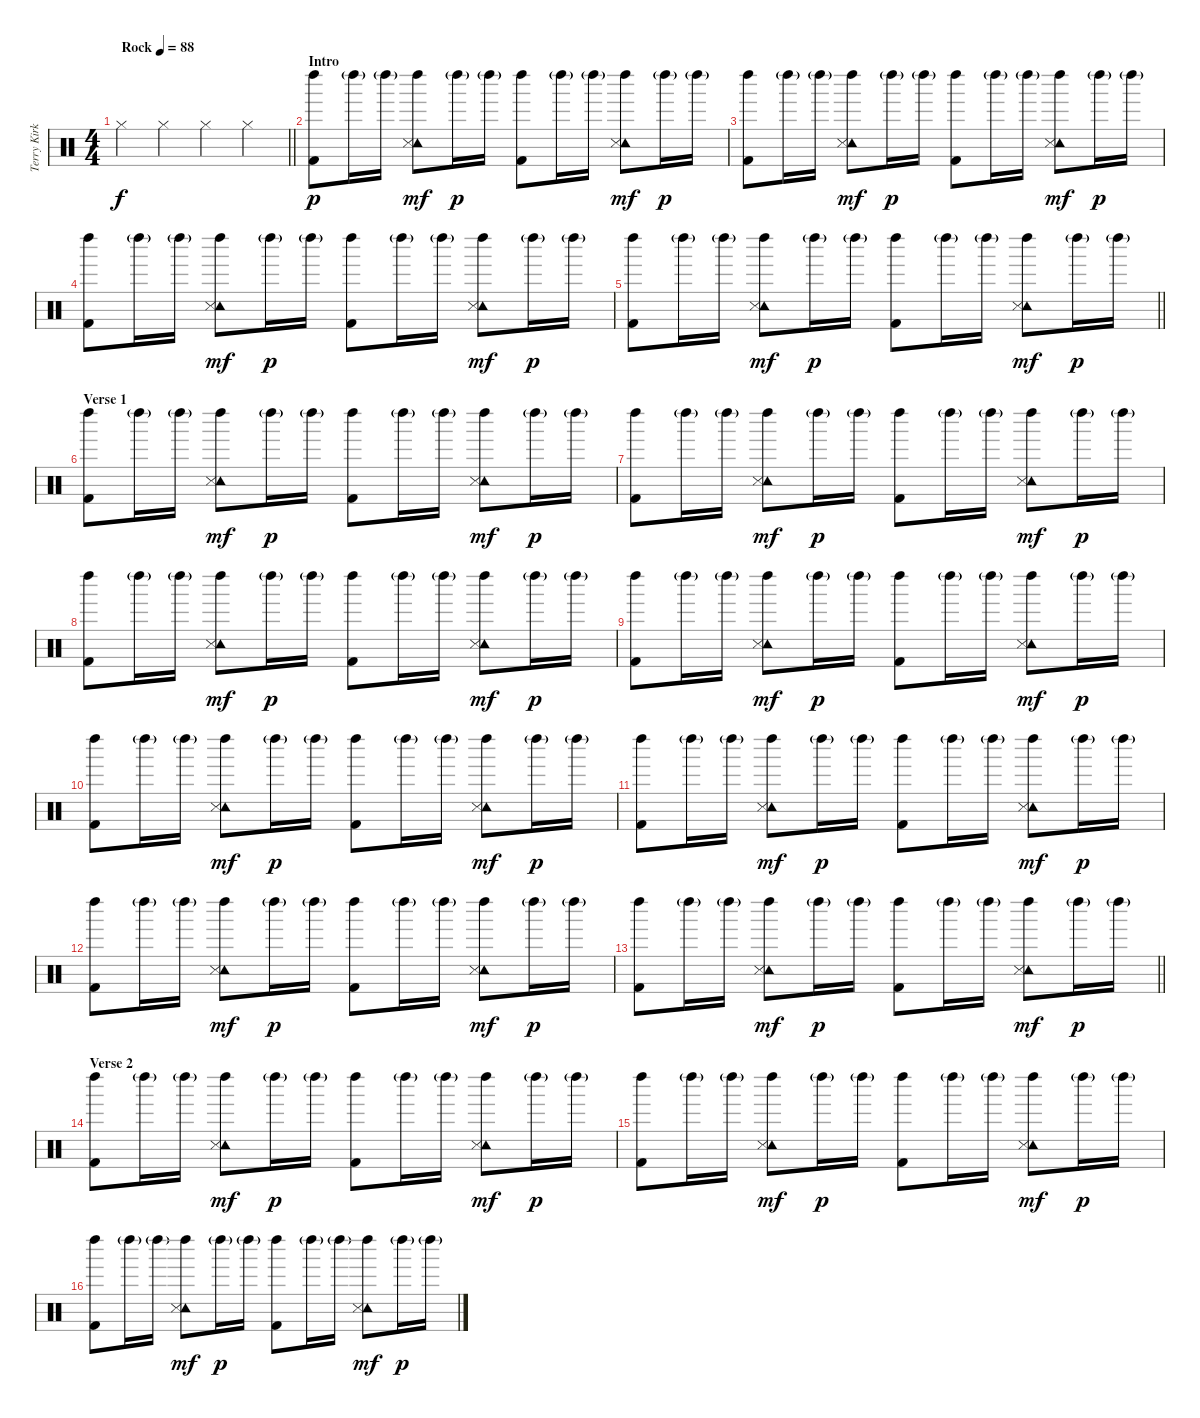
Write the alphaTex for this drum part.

\track ("Terry Kirkbride " "Terry Kirk") {instrument percussion}
\staff {score}
\articulation defaults
\ts (4 4)
\tempo (88 "Rock")
\clef neutral
\barLineRight lightlight
\ks c "Hi-Hat (closed)".4{dy f} "Hi-Hat (closed)".4 "Hi-Hat (closed)".4 "Hi-Hat (closed)".4
|
\section ("" "Intro")
("Left Maraca (hit)" "Kick (hit) 2").8{dy p} "Left Maraca (hit)"{g}.16 "Left Maraca (hit)"{g}.16 ("Left Maraca (hit)" "Tambourine (hit)" "Snare (side stick) 3").8{dy mf} "Left Maraca (hit)"{g}.16{dy p} "Left Maraca (hit)"{g}.16 ("Left Maraca (hit)" "Kick (hit) 2").8 "Left Maraca (hit)"{g}.16 "Left Maraca (hit)"{g}.16 ("Left Maraca (hit)" "Tambourine (hit)" "Snare (side stick) 3").8{dy mf} "Left Maraca (hit)"{g}.16{dy p} "Left Maraca (hit)"{g}.16 |
("Left Maraca (hit)" "Kick (hit) 2").8 "Left Maraca (hit)"{g}.16 "Left Maraca (hit)"{g}.16 ("Left Maraca (hit)" "Tambourine (hit)" "Snare (side stick) 3").8{dy mf} "Left Maraca (hit)"{g}.16{dy p} "Left Maraca (hit)"{g}.16 ("Left Maraca (hit)" "Kick (hit) 2").8 "Left Maraca (hit)"{g}.16 "Left Maraca (hit)"{g}.16 ("Left Maraca (hit)" "Tambourine (hit)" "Snare (side stick) 3").8{dy mf} "Left Maraca (hit)"{g}.16{dy p} "Left Maraca (hit)"{g}.16 |
("Left Maraca (hit)" "Kick (hit) 2").8 "Left Maraca (hit)"{g}.16 "Left Maraca (hit)"{g}.16 ("Left Maraca (hit)" "Tambourine (hit)" "Snare (side stick) 3").8{dy mf} "Left Maraca (hit)"{g}.16{dy p} "Left Maraca (hit)"{g}.16 ("Left Maraca (hit)" "Kick (hit) 2").8 "Left Maraca (hit)"{g}.16 "Left Maraca (hit)"{g}.16 ("Left Maraca (hit)" "Tambourine (hit)" "Snare (side stick) 3").8{dy mf} "Left Maraca (hit)"{g}.16{dy p} "Left Maraca (hit)"{g}.16 |
\barLineRight lightlight
("Left Maraca (hit)" "Kick (hit) 2").8 "Left Maraca (hit)"{g}.16 "Left Maraca (hit)"{g}.16 ("Left Maraca (hit)" "Tambourine (hit)" "Snare (side stick) 3").8{dy mf} "Left Maraca (hit)"{g}.16{dy p} "Left Maraca (hit)"{g}.16 ("Left Maraca (hit)" "Kick (hit) 2").8 "Left Maraca (hit)"{g}.16 "Left Maraca (hit)"{g}.16 ("Left Maraca (hit)" "Tambourine (hit)" "Snare (side stick) 3").8{dy mf} "Left Maraca (hit)"{g}.16{dy p} "Left Maraca (hit)"{g}.16 |
\section ("" "Verse 1")
("Left Maraca (hit)" "Kick (hit) 2").8 "Left Maraca (hit)"{g}.16 "Left Maraca (hit)"{g}.16 ("Left Maraca (hit)" "Tambourine (hit)" "Snare (side stick) 3").8{dy mf} "Left Maraca (hit)"{g}.16{dy p} "Left Maraca (hit)"{g}.16 ("Left Maraca (hit)" "Kick (hit) 2").8 "Left Maraca (hit)"{g}.16 "Left Maraca (hit)"{g}.16 ("Left Maraca (hit)" "Tambourine (hit)" "Snare (side stick) 3").8{dy mf} "Left Maraca (hit)"{g}.16{dy p} "Left Maraca (hit)"{g}.16 |
("Left Maraca (hit)" "Kick (hit) 2").8 "Left Maraca (hit)"{g}.16 "Left Maraca (hit)"{g}.16 ("Left Maraca (hit)" "Tambourine (hit)" "Snare (side stick) 3").8{dy mf} "Left Maraca (hit)"{g}.16{dy p} "Left Maraca (hit)"{g}.16 ("Left Maraca (hit)" "Kick (hit) 2").8 "Left Maraca (hit)"{g}.16 "Left Maraca (hit)"{g}.16 ("Left Maraca (hit)" "Tambourine (hit)" "Snare (side stick) 3").8{dy mf} "Left Maraca (hit)"{g}.16{dy p} "Left Maraca (hit)"{g}.16 |
("Left Maraca (hit)" "Kick (hit) 2").8 "Left Maraca (hit)"{g}.16 "Left Maraca (hit)"{g}.16 ("Left Maraca (hit)" "Tambourine (hit)" "Snare (side stick) 3").8{dy mf} "Left Maraca (hit)"{g}.16{dy p} "Left Maraca (hit)"{g}.16 ("Left Maraca (hit)" "Kick (hit) 2").8 "Left Maraca (hit)"{g}.16 "Left Maraca (hit)"{g}.16 ("Left Maraca (hit)" "Tambourine (hit)" "Snare (side stick) 3").8{dy mf} "Left Maraca (hit)"{g}.16{dy p} "Left Maraca (hit)"{g}.16 |
("Left Maraca (hit)" "Kick (hit) 2").8 "Left Maraca (hit)"{g}.16 "Left Maraca (hit)"{g}.16 ("Left Maraca (hit)" "Tambourine (hit)" "Snare (side stick) 3").8{dy mf} "Left Maraca (hit)"{g}.16{dy p} "Left Maraca (hit)"{g}.16 ("Left Maraca (hit)" "Kick (hit) 2").8 "Left Maraca (hit)"{g}.16 "Left Maraca (hit)"{g}.16 ("Left Maraca (hit)" "Tambourine (hit)" "Snare (side stick) 3").8{dy mf} "Left Maraca (hit)"{g}.16{dy p} "Left Maraca (hit)"{g}.16 |
("Left Maraca (hit)" "Kick (hit) 2").8 "Left Maraca (hit)"{g}.16 "Left Maraca (hit)"{g}.16 ("Left Maraca (hit)" "Tambourine (hit)" "Snare (side stick) 3").8{dy mf} "Left Maraca (hit)"{g}.16{dy p} "Left Maraca (hit)"{g}.16 ("Left Maraca (hit)" "Kick (hit) 2").8 "Left Maraca (hit)"{g}.16 "Left Maraca (hit)"{g}.16 ("Left Maraca (hit)" "Tambourine (hit)" "Snare (side stick) 3").8{dy mf} "Left Maraca (hit)"{g}.16{dy p} "Left Maraca (hit)"{g}.16 |
("Left Maraca (hit)" "Kick (hit) 2").8 "Left Maraca (hit)"{g}.16 "Left Maraca (hit)"{g}.16 ("Left Maraca (hit)" "Tambourine (hit)" "Snare (side stick) 3").8{dy mf} "Left Maraca (hit)"{g}.16{dy p} "Left Maraca (hit)"{g}.16 ("Left Maraca (hit)" "Kick (hit) 2").8 "Left Maraca (hit)"{g}.16 "Left Maraca (hit)"{g}.16 ("Left Maraca (hit)" "Tambourine (hit)" "Snare (side stick) 3").8{dy mf} "Left Maraca (hit)"{g}.16{dy p} "Left Maraca (hit)"{g}.16 |
("Left Maraca (hit)" "Kick (hit) 2").8 "Left Maraca (hit)"{g}.16 "Left Maraca (hit)"{g}.16 ("Left Maraca (hit)" "Tambourine (hit)" "Snare (side stick) 3").8{dy mf} "Left Maraca (hit)"{g}.16{dy p} "Left Maraca (hit)"{g}.16 ("Left Maraca (hit)" "Kick (hit) 2").8 "Left Maraca (hit)"{g}.16 "Left Maraca (hit)"{g}.16 ("Left Maraca (hit)" "Tambourine (hit)" "Snare (side stick) 3").8{dy mf} "Left Maraca (hit)"{g}.16{dy p} "Left Maraca (hit)"{g}.16 |
\barLineRight lightlight
("Left Maraca (hit)" "Kick (hit) 2").8 "Left Maraca (hit)"{g}.16 "Left Maraca (hit)"{g}.16 ("Left Maraca (hit)" "Tambourine (hit)" "Snare (side stick) 3").8{dy mf} "Left Maraca (hit)"{g}.16{dy p} "Left Maraca (hit)"{g}.16 ("Left Maraca (hit)" "Kick (hit) 2").8 "Left Maraca (hit)"{g}.16 "Left Maraca (hit)"{g}.16 ("Left Maraca (hit)" "Tambourine (hit)" "Snare (side stick) 3").8{dy mf} "Left Maraca (hit)"{g}.16{dy p} "Left Maraca (hit)"{g}.16 |
\section ("" "Verse 2")
("Left Maraca (hit)" "Kick (hit) 2").8 "Left Maraca (hit)"{g}.16 "Left Maraca (hit)"{g}.16 ("Left Maraca (hit)" "Tambourine (hit)" "Snare (side stick) 3").8{dy mf} "Left Maraca (hit)"{g}.16{dy p} "Left Maraca (hit)"{g}.16 ("Left Maraca (hit)" "Kick (hit) 2").8 "Left Maraca (hit)"{g}.16 "Left Maraca (hit)"{g}.16 ("Left Maraca (hit)" "Tambourine (hit)" "Snare (side stick) 3").8{dy mf} "Left Maraca (hit)"{g}.16{dy p} "Left Maraca (hit)"{g}.16 |
("Left Maraca (hit)" "Kick (hit) 2").8 "Left Maraca (hit)"{g}.16 "Left Maraca (hit)"{g}.16 ("Left Maraca (hit)" "Tambourine (hit)" "Snare (side stick) 3").8{dy mf} "Left Maraca (hit)"{g}.16{dy p} "Left Maraca (hit)"{g}.16 ("Left Maraca (hit)" "Kick (hit) 2").8 "Left Maraca (hit)"{g}.16 "Left Maraca (hit)"{g}.16 ("Left Maraca (hit)" "Tambourine (hit)" "Snare (side stick) 3").8{dy mf} "Left Maraca (hit)"{g}.16{dy p} "Left Maraca (hit)"{g}.16 |
("Left Maraca (hit)" "Kick (hit) 2").8 "Left Maraca (hit)"{g}.16 "Left Maraca (hit)"{g}.16 ("Left Maraca (hit)" "Tambourine (hit)" "Snare (side stick) 3").8{dy mf} "Left Maraca (hit)"{g}.16{dy p} "Left Maraca (hit)"{g}.16 ("Left Maraca (hit)" "Kick (hit) 2").8 "Left Maraca (hit)"{g}.16 "Left Maraca (hit)"{g}.16 ("Left Maraca (hit)" "Tambourine (hit)" "Snare (side stick) 3").8{dy mf} "Left Maraca (hit)"{g}.16{dy p} "Left Maraca (hit)"{g}.16
